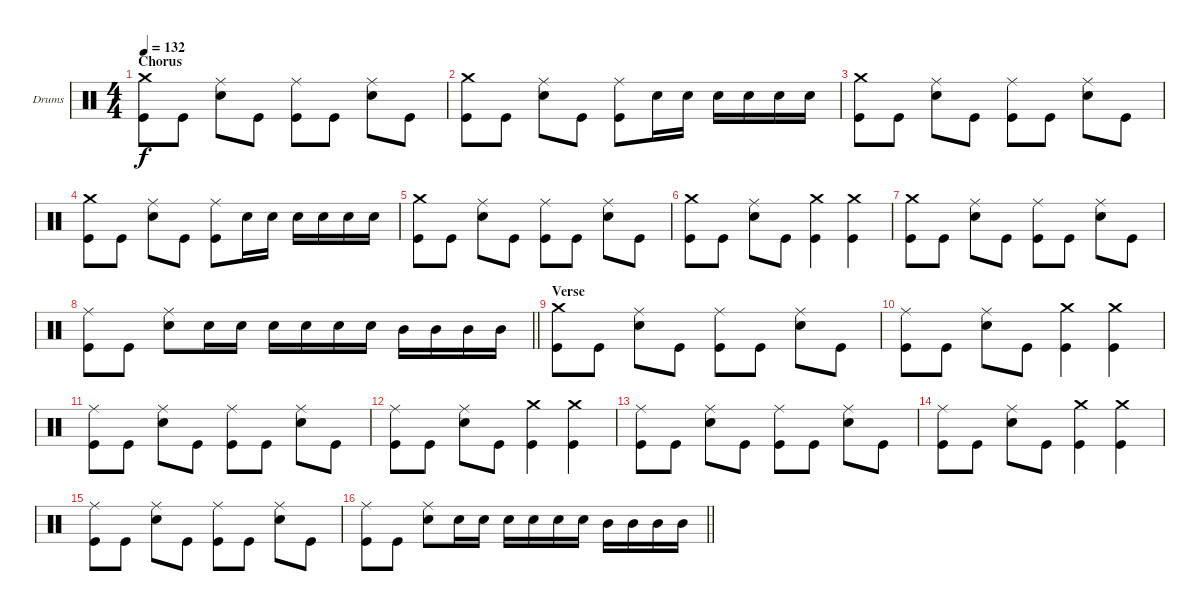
\bracketExtendMode groupsimilarinstruments
\firstSystemTrackNameOrientation horizontal
\otherSystemsTrackNameOrientation horizontal
\track ("Drums" "Drums") {instrument percussion}
\staff {score}
\articulation defaults
\ts (4 4)
\section ("" "Chorus")
\tempo 132
\clef neutral
\ks c
("Crash medium (hit)" "Kick (hit)").8{dy f} "Kick (hit)".8 ("Ride (middle)" "Snare (hit) 2").8 "Kick (hit)".8 ("Ride (middle)" "Kick (hit)").8 "Kick (hit)".8 ("Ride (middle)" "Snare (hit) 2").8 "Kick (hit)".8 |
("Crash medium (hit)" "Kick (hit)").8 "Kick (hit)".8 ("Ride (middle)" "Snare (hit) 2").8 "Kick (hit)".8 ("Ride (middle)" "Kick (hit)").8 "Snare (hit) 2".16 "Snare (hit) 2".16 "Snare (hit) 2".16 "Snare (hit) 2".16 "Snare (hit) 2".16 "Snare (hit) 2".16 |
("Crash medium (hit)" "Kick (hit)").8 "Kick (hit)".8 ("Ride (middle)" "Snare (hit) 2").8 "Kick (hit)".8 ("Ride (middle)" "Kick (hit)").8 "Kick (hit)".8 ("Ride (middle)" "Snare (hit) 2").8 "Kick (hit)".8 |
("Crash medium (hit)" "Kick (hit)").8 "Kick (hit)".8 ("Ride (middle)" "Snare (hit) 2").8 "Kick (hit)".8 ("Ride (middle)" "Kick (hit)").8 "Snare (hit) 2".16 "Snare (hit) 2".16 "Snare (hit) 2".16 "Snare (hit) 2".16 "Snare (hit) 2".16 "Snare (hit) 2".16 |
("Crash medium (hit)" "Kick (hit)").8 "Kick (hit)".8 ("Ride (middle)" "Snare (hit) 2").8 "Kick (hit)".8 ("Ride (middle)" "Kick (hit)").8 "Kick (hit)".8 ("Ride (middle)" "Snare (hit) 2").8 "Kick (hit)".8 |
("Crash medium (hit)" "Kick (hit)").8 "Kick (hit)".8 ("Ride (middle)" "Snare (hit) 2").8 "Kick (hit)".8 ("Crash medium (hit)" "Kick (hit)").4 ("Crash medium (hit)" "Kick (hit)").4 |
("Crash medium (hit)" "Kick (hit)").8 "Kick (hit)".8 ("Ride (middle)" "Snare (hit) 2").8 "Kick (hit)".8 ("Ride (middle)" "Kick (hit)").8 "Kick (hit)".8 ("Ride (middle)" "Snare (hit) 2").8 "Kick (hit)".8 |
\barLineRight lightlight
("Ride (middle)" "Kick (hit)").8 "Kick (hit)".8 ("Ride (middle)" "Snare (hit) 2").8 "Snare (hit) 2".16 "Snare (hit) 2".16 "Snare (hit) 2".16 "Snare (hit) 2".16 "Snare (hit) 2".16 "Snare (hit) 2".16 "Mid Tom (hit)".16 "Mid Tom (hit)".16 "Mid Tom (hit)".16 "Mid Tom (hit)".16 |
\section ("" "Verse")
("Crash medium (hit)" "Kick (hit)").8 "Kick (hit)".8 ("Ride (middle)" "Snare (hit) 2").8 "Kick (hit)".8 ("Ride (middle)" "Kick (hit)").8 "Kick (hit)".8 ("Ride (middle)" "Snare (hit) 2").8 "Kick (hit)".8 |
("Ride (middle)" "Kick (hit)").8 "Kick (hit)".8 ("Ride (middle)" "Snare (hit) 2").8 "Kick (hit)".8 ("Crash medium (hit)" "Kick (hit)").4 ("Crash medium (hit)" "Kick (hit)").4 |
("Ride (middle)" "Kick (hit)").8 "Kick (hit)".8 ("Ride (middle)" "Snare (hit) 2").8 "Kick (hit)".8 ("Ride (middle)" "Kick (hit)").8 "Kick (hit)".8 ("Ride (middle)" "Snare (hit) 2").8 "Kick (hit)".8 |
("Ride (middle)" "Kick (hit)").8 "Kick (hit)".8 ("Ride (middle)" "Snare (hit) 2").8 "Kick (hit)".8 ("Crash medium (hit)" "Kick (hit)").4 ("Crash medium (hit)" "Kick (hit)").4 |
("Ride (middle)" "Kick (hit)").8 "Kick (hit)".8 ("Ride (middle)" "Snare (hit) 2").8 "Kick (hit)".8 ("Ride (middle)" "Kick (hit)").8 "Kick (hit)".8 ("Ride (middle)" "Snare (hit) 2").8 "Kick (hit)".8 |
("Ride (middle)" "Kick (hit)").8 "Kick (hit)".8 ("Ride (middle)" "Snare (hit) 2").8 "Kick (hit)".8 ("Crash medium (hit)" "Kick (hit)").4 ("Crash medium (hit)" "Kick (hit)").4 |
("Ride (middle)" "Kick (hit)").8 "Kick (hit)".8 ("Ride (middle)" "Snare (hit) 2").8 "Kick (hit)".8 ("Ride (middle)" "Kick (hit)").8 "Kick (hit)".8 ("Ride (middle)" "Snare (hit) 2").8 "Kick (hit)".8 |
\barLineRight lightlight
("Ride (middle)" "Kick (hit)").8 "Kick (hit)".8 ("Ride (middle)" "Snare (hit) 2").8 "Snare (hit) 2".16 "Snare (hit) 2".16 "Snare (hit) 2".16 "Snare (hit) 2".16 "Snare (hit) 2".16 "Snare (hit) 2".16 "Mid Tom (hit)".16 "Mid Tom (hit)".16 "Mid Tom (hit)".16 "Mid Tom (hit)".16
